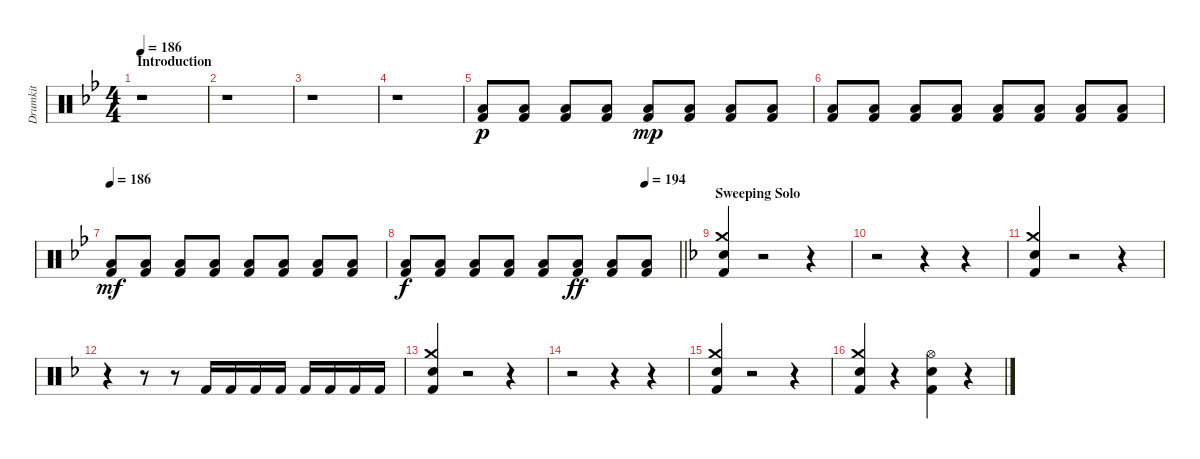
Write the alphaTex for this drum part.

\track ("Drumkit" "Drumkit") {instrument percussion}
\staff {score}
\articulation defaults
\ts (4 4)
\section ("" "Introduction")
\tempo 186
\clef neutral
\ks bb
r.1{dy p} |
r.1 |
r.1 |
r.1 |
("Low Tom (hit)" "Kick (hit) 2").8 ("Low Tom (hit)" "Kick (hit) 2").8 ("Low Tom (hit)" "Kick (hit) 2").8 ("Low Tom (hit)" "Kick (hit) 2").8 ("Low Tom (hit)" "Kick (hit) 2").8{dy mp} ("Low Tom (hit)" "Kick (hit) 2").8 ("Low Tom (hit)" "Kick (hit) 2").8 ("Low Tom (hit)" "Kick (hit) 2").8 |
("Low Tom (hit)" "Kick (hit) 2").8 ("Low Tom (hit)" "Kick (hit) 2").8 ("Low Tom (hit)" "Kick (hit) 2").8 ("Low Tom (hit)" "Kick (hit) 2").8 ("Low Tom (hit)" "Kick (hit) 2").8 ("Low Tom (hit)" "Kick (hit) 2").8 ("Low Tom (hit)" "Kick (hit) 2").8 ("Low Tom (hit)" "Kick (hit) 2").8 |
\tempo 186
("Low Tom (hit)" "Kick (hit) 2").8{dy mf} ("Low Tom (hit)" "Kick (hit) 2").8 ("Low Tom (hit)" "Kick (hit) 2").8 ("Low Tom (hit)" "Kick (hit) 2").8 ("Low Tom (hit)" "Kick (hit) 2").8 ("Low Tom (hit)" "Kick (hit) 2").8 ("Low Tom (hit)" "Kick (hit) 2").8 ("Low Tom (hit)" "Kick (hit) 2").8 |
\tempo (194 0.875)
\barLineRight lightlight
("Low Tom (hit)" "Kick (hit) 2").8{dy f} ("Low Tom (hit)" "Kick (hit) 2").8 ("Low Tom (hit)" "Kick (hit) 2").8 ("Low Tom (hit)" "Kick (hit) 2").8 ("Low Tom (hit)" "Kick (hit) 2").8 ("Low Tom (hit)" "Kick (hit) 2").8{dy ff} ("Low Tom (hit)" "Kick (hit) 2").8 ("Low Tom (hit)" "Kick (hit) 2").8 |
\section ("" "Sweeping Solo")
\ks f
("Crash medium (hit)" "Snare (hit) 2" "Kick (hit) 2").4 r.2 r.4 |
r.2 r.4 r.4 |
("Crash medium (hit)" "Snare (hit) 2" "Kick (hit) 2").4 r.2 r.4 |
r.4 r.8 r.8 "Kick (hit) 2".16 "Kick (hit) 2".16 "Kick (hit) 2".16 "Kick (hit) 2".16 "Kick (hit) 2".16 "Kick (hit) 2".16 "Kick (hit) 2".16 "Kick (hit) 2".16 |
("Crash medium (hit)" "Snare (hit) 2" "Kick (hit) 2").4 r.2 r.4 |
r.2 r.4 r.4 |
("Crash medium (hit)" "Snare (hit) 2" "Kick (hit) 2").4 r.2 r.4 |
("Crash medium (hit)" "Snare (hit) 2" "Kick (hit) 2").4 r.4 ("Hi-Hat (open)" "Snare (hit) 2" "Kick (hit) 2").4 r.4
